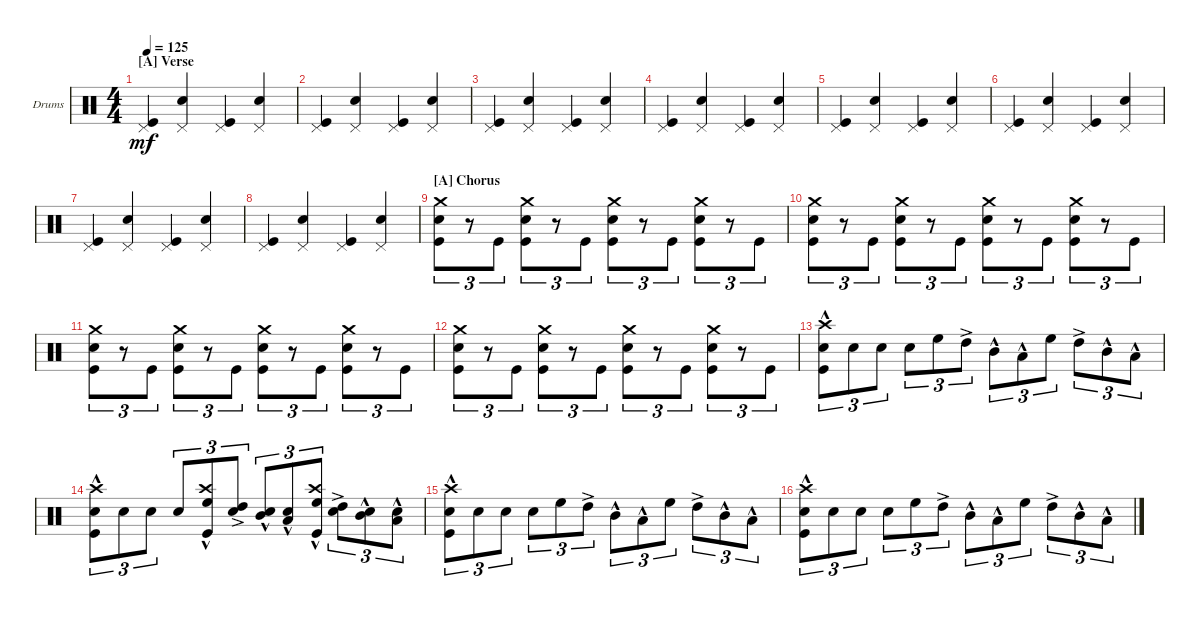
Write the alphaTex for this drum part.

\defaultSystemsLayout 4
\bracketExtendMode groupsimilarinstruments
\firstSystemTrackNameOrientation horizontal
\otherSystemsTrackNameOrientation horizontal
\track ("Drumkit" "Drums") {instrument percussion}
\staff {score}
\articulation defaults
\ts (4 4)
\section ("A" "Verse")
\tempo 125
\clef neutral
\ks c
("Kick (hit)" "Pedal Hi-Hat (hit)").4{dy mf} ("Snare (hit) 2" "Pedal Hi-Hat (hit)").4 ("Kick (hit)" "Pedal Hi-Hat (hit)").4 ("Snare (hit) 2" "Pedal Hi-Hat (hit)").4 |
("Kick (hit)" "Pedal Hi-Hat (hit)").4 ("Snare (hit) 2" "Pedal Hi-Hat (hit)").4 ("Kick (hit)" "Pedal Hi-Hat (hit)").4 ("Snare (hit) 2" "Pedal Hi-Hat (hit)").4 |
("Kick (hit)" "Pedal Hi-Hat (hit)").4 ("Snare (hit) 2" "Pedal Hi-Hat (hit)").4 ("Kick (hit)" "Pedal Hi-Hat (hit)").4 ("Snare (hit) 2" "Pedal Hi-Hat (hit)").4 |
("Kick (hit)" "Pedal Hi-Hat (hit)").4 ("Snare (hit) 2" "Pedal Hi-Hat (hit)").4 ("Kick (hit)" "Pedal Hi-Hat (hit)").4 ("Snare (hit) 2" "Pedal Hi-Hat (hit)").4 |
("Kick (hit)" "Pedal Hi-Hat (hit)").4 ("Snare (hit) 2" "Pedal Hi-Hat (hit)").4 ("Kick (hit)" "Pedal Hi-Hat (hit)").4 ("Snare (hit) 2" "Pedal Hi-Hat (hit)").4 |
("Kick (hit)" "Pedal Hi-Hat (hit)").4 ("Snare (hit) 2" "Pedal Hi-Hat (hit)").4 ("Kick (hit)" "Pedal Hi-Hat (hit)").4 ("Snare (hit) 2" "Pedal Hi-Hat (hit)").4 |
("Kick (hit)" "Pedal Hi-Hat (hit)").4 ("Snare (hit) 2" "Pedal Hi-Hat (hit)").4 ("Kick (hit)" "Pedal Hi-Hat (hit)").4 ("Snare (hit) 2" "Pedal Hi-Hat (hit)").4 |
("Kick (hit)" "Pedal Hi-Hat (hit)").4 ("Snare (hit) 2" "Pedal Hi-Hat (hit)").4 ("Kick (hit)" "Pedal Hi-Hat (hit)").4 ("Snare (hit) 2" "Pedal Hi-Hat (hit)").4 |
\section ("A" "Chorus")
("Kick (hit)" "Crash medium (hit)" "Snare (hit) 2").8{tu (3 2)} r.8{tu (3 2)} "Kick (hit)".8{tu (3 2)} ("Kick (hit)" "Snare (hit) 2" "Crash medium (hit)").8{tu (3 2)} r.8{tu (3 2)} "Kick (hit)".8{tu (3 2)} ("Kick (hit)" "Snare (hit) 2" "Crash medium (hit)").8{tu (3 2)} r.8{tu (3 2)} "Kick (hit)".8{tu (3 2)} ("Kick (hit)" "Crash medium (hit)" "Snare (hit) 2").8{tu (3 2)} r.8{tu (3 2)} "Kick (hit)".8{tu (3 2)} |
("Kick (hit)" "Crash medium (hit)" "Snare (hit) 2").8{tu (3 2)} r.8{tu (3 2)} "Kick (hit)".8{tu (3 2)} ("Kick (hit)" "Snare (hit) 2" "Crash medium (hit)").8{tu (3 2)} r.8{tu (3 2)} "Kick (hit)".8{tu (3 2)} ("Kick (hit)" "Snare (hit) 2" "Crash medium (hit)").8{tu (3 2)} r.8{tu (3 2)} "Kick (hit)".8{tu (3 2)} ("Kick (hit)" "Crash medium (hit)" "Snare (hit) 2").8{tu (3 2)} r.8{tu (3 2)} "Kick (hit)".8{tu (3 2)} |
("Kick (hit)" "Crash medium (hit)" "Snare (hit) 2").8{tu (3 2)} r.8{tu (3 2)} "Kick (hit)".8{tu (3 2)} ("Kick (hit)" "Snare (hit) 2" "Crash medium (hit)").8{tu (3 2)} r.8{tu (3 2)} "Kick (hit)".8{tu (3 2)} ("Kick (hit)" "Snare (hit) 2" "Crash medium (hit)").8{tu (3 2)} r.8{tu (3 2)} "Kick (hit)".8{tu (3 2)} ("Kick (hit)" "Crash medium (hit)" "Snare (hit) 2").8{tu (3 2)} r.8{tu (3 2)} "Kick (hit)".8{tu (3 2)} |
("Kick (hit)" "Crash medium (hit)" "Snare (hit) 2").8{tu (3 2)} r.8{tu (3 2)} "Kick (hit)".8{tu (3 2)} ("Kick (hit)" "Snare (hit) 2" "Crash medium (hit)").8{tu (3 2)} r.8{tu (3 2)} "Kick (hit)".8{tu (3 2)} ("Kick (hit)" "Snare (hit) 2" "Crash medium (hit)").8{tu (3 2)} r.8{tu (3 2)} "Kick (hit)".8{tu (3 2)} ("Kick (hit)" "Crash medium (hit)" "Snare (hit) 2").8{tu (3 2)} r.8{tu (3 2)} "Kick (hit)".8{tu (3 2)} |
("Kick (hit)"{hac} "Snare (hit) 2" "Crash high (hit)").8{tu (3 2)} "Snare (hit) 2".8{tu (3 2)} "Snare (hit) 2".8{tu (3 2)} "Snare (hit) 2".8{tu (3 2)} "High Floor Tom (hit)".8{tu (3 2)} "High Tom (hit)"{ac}.8{tu (3 2)} "Mid Tom (hit)"{hac}.8{tu (3 2)} "Low Tom (hit)"{hac}.8{tu (3 2)} "High Floor Tom (hit)".8{tu (3 2)} "High Tom (hit)"{ac}.8{tu (3 2)} "Mid Tom (hit)"{hac}.8{tu (3 2)} "Low Tom (hit)"{hac}.8{tu (3 2)} |
("Kick (hit)"{hac} "Snare (hit) 2" "Crash high (hit)").8{tu (3 2)} "Snare (hit) 2".8{tu (3 2)} "Snare (hit) 2".8{tu (3 2)} "Snare (hit) 2".8{tu (3 2)} ("High Floor Tom (hit)" "Kick (hit)"{hac} "Crash high (hit)").8{tu (3 2)} ("High Tom (hit)"{ac} "Snare (hit) 2").8{tu (3 2)} ("Mid Tom (hit)"{hac} "Snare (hit) 2").8{tu (3 2)} ("Low Tom (hit)"{hac} "Snare (hit) 2").8{tu (3 2)} ("High Floor Tom (hit)" "Kick (hit)"{hac} "Crash high (hit)").8{tu (3 2)} ("High Tom (hit)"{ac} "Snare (hit) 2").8{tu (3 2)} ("Mid Tom (hit)"{hac} "Snare (hit) 2").8{tu (3 2)} ("Low Tom (hit)"{hac} "Snare (hit) 2").8{tu (3 2)} |
("Kick (hit)"{hac} "Snare (hit) 2" "Crash high (hit)").8{tu (3 2)} "Snare (hit) 2".8{tu (3 2)} "Snare (hit) 2".8{tu (3 2)} "Snare (hit) 2".8{tu (3 2)} "High Floor Tom (hit)".8{tu (3 2)} "High Tom (hit)"{ac}.8{tu (3 2)} "Mid Tom (hit)"{hac}.8{tu (3 2)} "Low Tom (hit)"{hac}.8{tu (3 2)} "High Floor Tom (hit)".8{tu (3 2)} "High Tom (hit)"{ac}.8{tu (3 2)} "Mid Tom (hit)"{hac}.8{tu (3 2)} "Low Tom (hit)"{hac}.8{tu (3 2)} |
("Kick (hit)"{hac} "Snare (hit) 2" "Crash high (hit)").8{tu (3 2)} "Snare (hit) 2".8{tu (3 2)} "Snare (hit) 2".8{tu (3 2)} "Snare (hit) 2".8{tu (3 2)} "High Floor Tom (hit)".8{tu (3 2)} "High Tom (hit)"{ac}.8{tu (3 2)} "Mid Tom (hit)"{hac}.8{tu (3 2)} "Low Tom (hit)"{hac}.8{tu (3 2)} "High Floor Tom (hit)".8{tu (3 2)} "High Tom (hit)"{ac}.8{tu (3 2)} "Mid Tom (hit)"{hac}.8{tu (3 2)} "Low Tom (hit)"{hac}.8{tu (3 2)}
